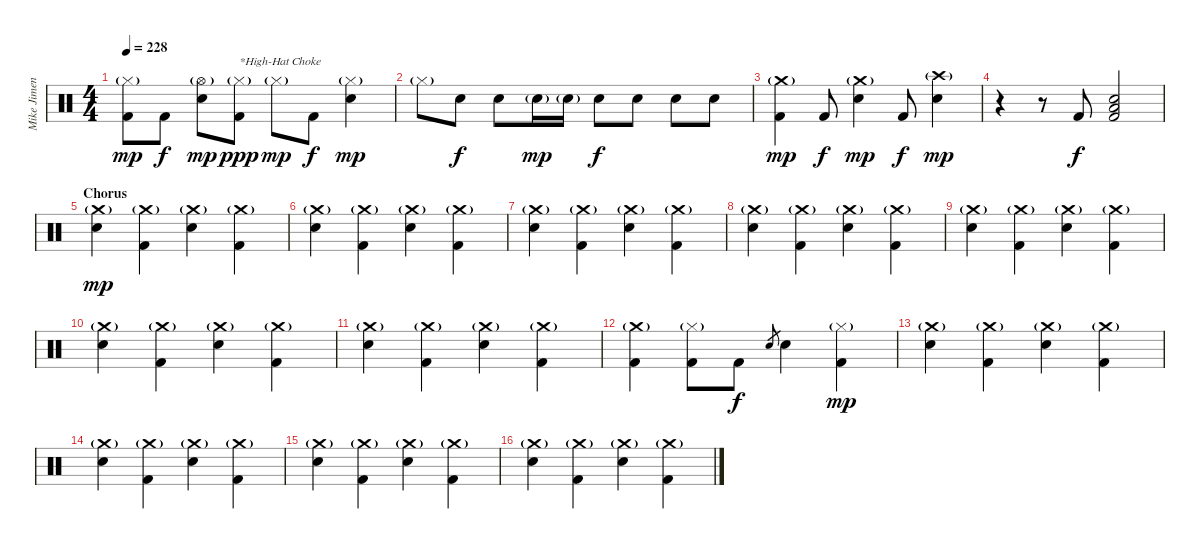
\track ("Mike Jimenez" "Mike Jimen") {instrument percussion}
\staff {score}
\articulation defaults
\ts (4 4)
\tempo 228
\clef neutral
\ks c
("Hi-Hat (closed)"{g} "Kick (hit) 2").8{dy mp} "Kick (hit) 2".8{dy f} ("Hi-Hat (open)"{g} "Electric Snare (hit)").8{dy mp} ("Hi-Hat (closed)"{g} "Kick (hit) 2").8{txt "*High-Hat Choke" dy ppp} "Hi-Hat (closed)"{g}.8{dy mp} "Kick (hit) 2".8{dy f} ("Hi-Hat (closed)"{g} "Electric Snare (hit)").4{dy mp} |
"Hi-Hat (closed)"{g}.8 "Electric Snare (hit)".8{dy f} "Electric Snare (hit)".8 "Electric Snare (hit)"{g}.16{dy mp} "Electric Snare (hit)"{g}.16 "Electric Snare (hit)".8{dy f} "Electric Snare (hit)".8 "Electric Snare (hit)".8 "Electric Snare (hit)".8 |
("Crash medium (hit)"{g} "Kick (hit) 2").4{dy mp} "Kick (hit) 2".8{dy f} ("Crash medium (hit)"{g} "Electric Snare (hit)").4{dy mp} "Kick (hit) 2".8{dy f} ("Crash high (hit)"{g} "Electric Snare (hit)").4{dy mp} |
r.4 r.8 "Kick (hit) 2".8{dy f} ("Electric Snare (hit)" "Low Floor Tom (hit)" "Kick (hit) 2").2 |
\section ("" "Chorus")
("Crash medium (hit)"{g} "Electric Snare (hit)").4{dy mp} ("Crash medium (hit)"{g} "Kick (hit) 2").4 ("Crash medium (hit)"{g} "Electric Snare (hit)").4 ("Crash medium (hit)"{g} "Kick (hit) 2").4 |
("Crash medium (hit)"{g} "Electric Snare (hit)").4 ("Crash medium (hit)"{g} "Kick (hit) 2").4 ("Crash medium (hit)"{g} "Electric Snare (hit)").4 ("Crash medium (hit)"{g} "Kick (hit) 2").4 |
("Crash medium (hit)"{g} "Electric Snare (hit)").4 ("Crash medium (hit)"{g} "Kick (hit) 2").4 ("Crash medium (hit)"{g} "Electric Snare (hit)").4 ("Crash medium (hit)"{g} "Kick (hit) 2").4 |
("Crash medium (hit)"{g} "Electric Snare (hit)").4 ("Crash medium (hit)"{g} "Kick (hit) 2").4 ("Crash medium (hit)"{g} "Electric Snare (hit)").4 ("Crash medium (hit)"{g} "Kick (hit) 2").4 |
("Crash medium (hit)"{g} "Electric Snare (hit)").4 ("Crash medium (hit)"{g} "Kick (hit) 2").4 ("Crash medium (hit)"{g} "Electric Snare (hit)").4 ("Crash medium (hit)"{g} "Kick (hit) 2").4 |
("Crash medium (hit)"{g} "Electric Snare (hit)").4 ("Crash medium (hit)"{g} "Kick (hit) 2").4 ("Crash medium (hit)"{g} "Electric Snare (hit)").4 ("Crash medium (hit)"{g} "Kick (hit) 2").4 |
("Crash medium (hit)"{g} "Electric Snare (hit)").4 ("Crash medium (hit)"{g} "Kick (hit) 2").4 ("Crash medium (hit)"{g} "Electric Snare (hit)").4 ("Crash medium (hit)"{g} "Kick (hit) 2").4 |
("Crash medium (hit)"{g} "Kick (hit) 2").4 ("Hi-Hat (closed)"{g} "Kick (hit) 2").8 "Kick (hit) 2".8{dy f} "Electric Snare (hit)".8{gr} "Electric Snare (hit)".4 ("Hi-Hat (closed)"{g} "Kick (hit) 2").4{dy mp} |
("Crash medium (hit)"{g} "Electric Snare (hit)").4 ("Crash medium (hit)"{g} "Kick (hit) 2").4 ("Crash medium (hit)"{g} "Electric Snare (hit)").4 ("Crash medium (hit)"{g} "Kick (hit) 2").4 |
("Crash medium (hit)"{g} "Electric Snare (hit)").4 ("Crash medium (hit)"{g} "Kick (hit) 2").4 ("Crash medium (hit)"{g} "Electric Snare (hit)").4 ("Crash medium (hit)"{g} "Kick (hit) 2").4 |
("Crash medium (hit)"{g} "Electric Snare (hit)").4 ("Crash medium (hit)"{g} "Kick (hit) 2").4 ("Crash medium (hit)"{g} "Electric Snare (hit)").4 ("Crash medium (hit)"{g} "Kick (hit) 2").4 |
("Crash medium (hit)"{g} "Electric Snare (hit)").4 ("Crash medium (hit)"{g} "Kick (hit) 2").4 ("Crash medium (hit)"{g} "Electric Snare (hit)").4 ("Crash medium (hit)"{g} "Kick (hit) 2").4
